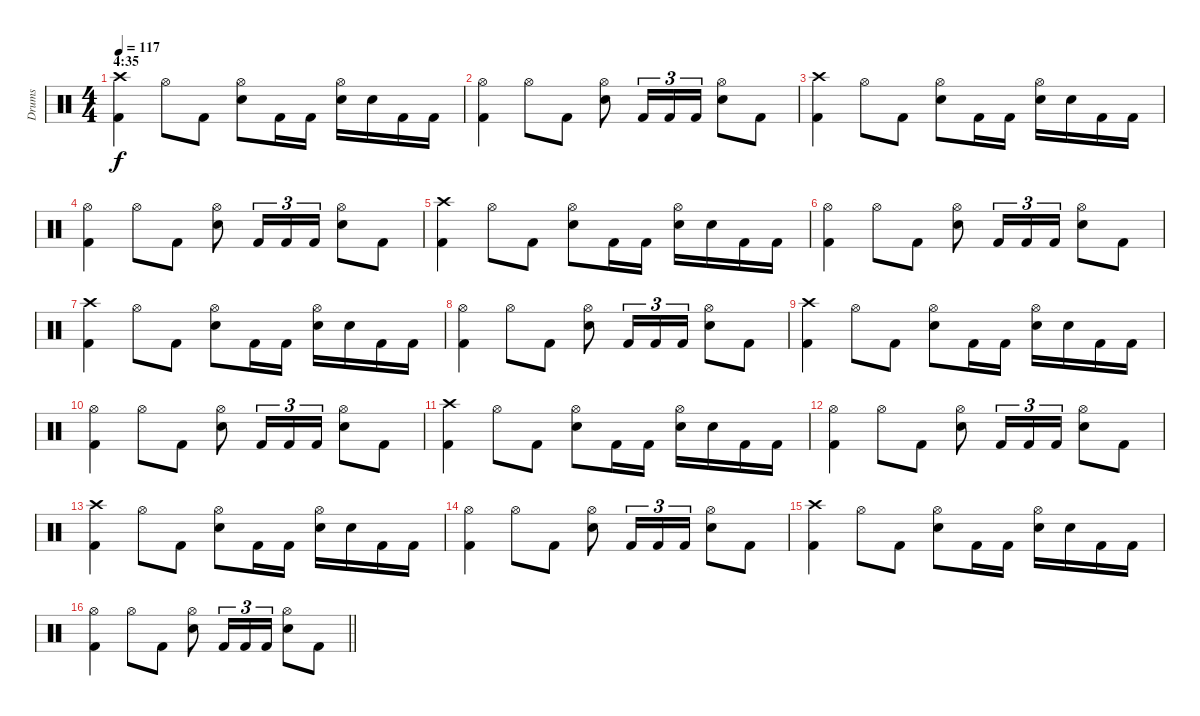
\track ("Drums" "Drums") {instrument percussion}
\staff {score}
\articulation defaults
\ts (4 4)
\section ("" "4:35")
\tempo 117
\clef neutral
\ks c
("Crash high (hit)" "Kick (hit) 2").4{dy f} "Hi-Hat (open)".8 "Kick (hit) 2".8 ("Hi-Hat (open)" "Snare (hit) 2").8 "Kick (hit) 2".16 "Kick (hit) 2".16 ("Hi-Hat (open)" "Snare (hit) 2").16 "Snare (hit) 2".16 "Kick (hit) 2".16 "Kick (hit) 2".16 |
("Hi-Hat (open)" "Kick (hit) 2").4 "Hi-Hat (open)".8 "Kick (hit) 2".8 ("Hi-Hat (open)" "Snare (hit) 2").8 "Kick (hit) 2".16{tu (3 2)} "Kick (hit) 2".16{tu (3 2)} "Kick (hit) 2".16{tu (3 2)} ("Hi-Hat (open)" "Snare (hit) 2").8 "Kick (hit) 2".8 |
("Crash high (hit)" "Kick (hit) 2").4 "Hi-Hat (open)".8 "Kick (hit) 2".8 ("Hi-Hat (open)" "Snare (hit) 2").8 "Kick (hit) 2".16 "Kick (hit) 2".16 ("Hi-Hat (open)" "Snare (hit) 2").16 "Snare (hit) 2".16 "Kick (hit) 2".16 "Kick (hit) 2".16 |
("Hi-Hat (open)" "Kick (hit) 2").4 "Hi-Hat (open)".8 "Kick (hit) 2".8 ("Hi-Hat (open)" "Snare (hit) 2").8 "Kick (hit) 2".16{tu (3 2)} "Kick (hit) 2".16{tu (3 2)} "Kick (hit) 2".16{tu (3 2)} ("Hi-Hat (open)" "Snare (hit) 2").8 "Kick (hit) 2".8 |
("Crash high (hit)" "Kick (hit) 2").4 "Hi-Hat (open)".8 "Kick (hit) 2".8 ("Hi-Hat (open)" "Snare (hit) 2").8 "Kick (hit) 2".16 "Kick (hit) 2".16 ("Hi-Hat (open)" "Snare (hit) 2").16 "Snare (hit) 2".16 "Kick (hit) 2".16 "Kick (hit) 2".16 |
("Hi-Hat (open)" "Kick (hit) 2").4 "Hi-Hat (open)".8 "Kick (hit) 2".8 ("Hi-Hat (open)" "Snare (hit) 2").8 "Kick (hit) 2".16{tu (3 2)} "Kick (hit) 2".16{tu (3 2)} "Kick (hit) 2".16{tu (3 2)} ("Hi-Hat (open)" "Snare (hit) 2").8 "Kick (hit) 2".8 |
("Crash high (hit)" "Kick (hit) 2").4 "Hi-Hat (open)".8 "Kick (hit) 2".8 ("Hi-Hat (open)" "Snare (hit) 2").8 "Kick (hit) 2".16 "Kick (hit) 2".16 ("Hi-Hat (open)" "Snare (hit) 2").16 "Snare (hit) 2".16 "Kick (hit) 2".16 "Kick (hit) 2".16 |
("Hi-Hat (open)" "Kick (hit) 2").4 "Hi-Hat (open)".8 "Kick (hit) 2".8 ("Hi-Hat (open)" "Snare (hit) 2").8 "Kick (hit) 2".16{tu (3 2)} "Kick (hit) 2".16{tu (3 2)} "Kick (hit) 2".16{tu (3 2)} ("Hi-Hat (open)" "Snare (hit) 2").8 "Kick (hit) 2".8 |
("Crash high (hit)" "Kick (hit) 2").4 "Hi-Hat (open)".8 "Kick (hit) 2".8 ("Hi-Hat (open)" "Snare (hit) 2").8 "Kick (hit) 2".16 "Kick (hit) 2".16 ("Hi-Hat (open)" "Snare (hit) 2").16 "Snare (hit) 2".16 "Kick (hit) 2".16 "Kick (hit) 2".16 |
("Hi-Hat (open)" "Kick (hit) 2").4 "Hi-Hat (open)".8 "Kick (hit) 2".8 ("Hi-Hat (open)" "Snare (hit) 2").8 "Kick (hit) 2".16{tu (3 2)} "Kick (hit) 2".16{tu (3 2)} "Kick (hit) 2".16{tu (3 2)} ("Hi-Hat (open)" "Snare (hit) 2").8 "Kick (hit) 2".8 |
("Crash high (hit)" "Kick (hit) 2").4 "Hi-Hat (open)".8 "Kick (hit) 2".8 ("Hi-Hat (open)" "Snare (hit) 2").8 "Kick (hit) 2".16 "Kick (hit) 2".16 ("Hi-Hat (open)" "Snare (hit) 2").16 "Snare (hit) 2".16 "Kick (hit) 2".16 "Kick (hit) 2".16 |
("Hi-Hat (open)" "Kick (hit) 2").4 "Hi-Hat (open)".8 "Kick (hit) 2".8 ("Hi-Hat (open)" "Snare (hit) 2").8 "Kick (hit) 2".16{tu (3 2)} "Kick (hit) 2".16{tu (3 2)} "Kick (hit) 2".16{tu (3 2)} ("Hi-Hat (open)" "Snare (hit) 2").8 "Kick (hit) 2".8 |
("Crash high (hit)" "Kick (hit) 2").4 "Hi-Hat (open)".8 "Kick (hit) 2".8 ("Hi-Hat (open)" "Snare (hit) 2").8 "Kick (hit) 2".16 "Kick (hit) 2".16 ("Hi-Hat (open)" "Snare (hit) 2").16 "Snare (hit) 2".16 "Kick (hit) 2".16 "Kick (hit) 2".16 |
("Hi-Hat (open)" "Kick (hit) 2").4 "Hi-Hat (open)".8 "Kick (hit) 2".8 ("Hi-Hat (open)" "Snare (hit) 2").8 "Kick (hit) 2".16{tu (3 2)} "Kick (hit) 2".16{tu (3 2)} "Kick (hit) 2".16{tu (3 2)} ("Hi-Hat (open)" "Snare (hit) 2").8 "Kick (hit) 2".8 |
("Crash high (hit)" "Kick (hit) 2").4 "Hi-Hat (open)".8 "Kick (hit) 2".8 ("Hi-Hat (open)" "Snare (hit) 2").8 "Kick (hit) 2".16 "Kick (hit) 2".16 ("Hi-Hat (open)" "Snare (hit) 2").16 "Snare (hit) 2".16 "Kick (hit) 2".16 "Kick (hit) 2".16 |
\barLineRight lightlight
("Hi-Hat (open)" "Kick (hit) 2").4 "Hi-Hat (open)".8 "Kick (hit) 2".8 ("Hi-Hat (open)" "Snare (hit) 2").8 "Kick (hit) 2".16{tu (3 2)} "Kick (hit) 2".16{tu (3 2)} "Kick (hit) 2".16{tu (3 2)} ("Hi-Hat (open)" "Snare (hit) 2").8 "Kick (hit) 2".8
